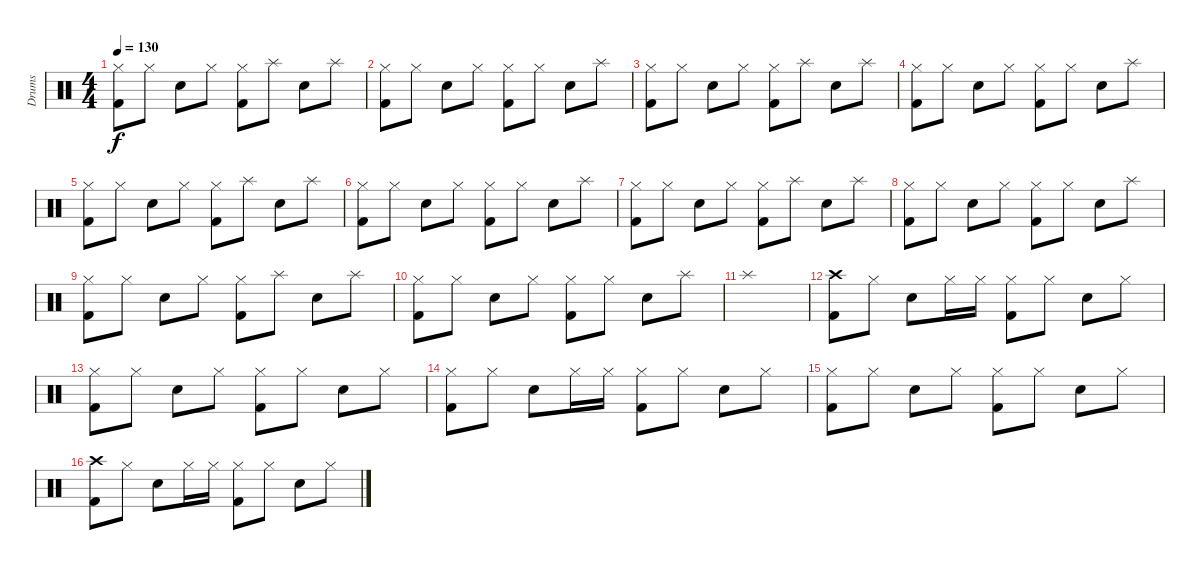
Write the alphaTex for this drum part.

\track ("Drums" "Drums") {instrument percussion}
\staff {score}
\articulation defaults
\ts (4 4)
\tempo 130
\clef neutral
\ks c
("Hi-Hat (closed)" "Kick (hit) 2").8{dy f} "Hi-Hat (closed)".8 "Snare (hit) 2".8 "Hi-Hat (closed)".8 ("Hi-Hat (closed)" "Kick (hit) 2").8 "Splash (hit)".8 "Snare (hit) 2".8 "Splash (hit)".8 |
("Hi-Hat (closed)" "Kick (hit) 2").8 "Hi-Hat (closed)".8 "Snare (hit) 2".8 "Hi-Hat (closed)".8 ("Hi-Hat (closed)" "Kick (hit) 2").8 "Hi-Hat (closed)".8 "Snare (hit) 2".8 "Splash (hit)".8 |
("Hi-Hat (closed)" "Kick (hit) 2").8 "Hi-Hat (closed)".8 "Snare (hit) 2".8 "Hi-Hat (closed)".8 ("Hi-Hat (closed)" "Kick (hit) 2").8 "Splash (hit)".8 "Snare (hit) 2".8 "Splash (hit)".8 |
("Hi-Hat (closed)" "Kick (hit) 2").8 "Hi-Hat (closed)".8 "Snare (hit) 2".8 "Hi-Hat (closed)".8 ("Hi-Hat (closed)" "Kick (hit) 2").8 "Hi-Hat (closed)".8 "Snare (hit) 2".8 "Splash (hit)".8 |
("Hi-Hat (closed)" "Kick (hit) 2").8 "Hi-Hat (closed)".8 "Snare (hit) 2".8 "Hi-Hat (closed)".8 ("Hi-Hat (closed)" "Kick (hit) 2").8 "Splash (hit)".8 "Snare (hit) 2".8 "Splash (hit)".8 |
("Hi-Hat (closed)" "Kick (hit) 2").8 "Hi-Hat (closed)".8 "Snare (hit) 2".8 "Hi-Hat (closed)".8 ("Hi-Hat (closed)" "Kick (hit) 2").8 "Hi-Hat (closed)".8 "Snare (hit) 2".8 "Splash (hit)".8 |
("Hi-Hat (closed)" "Kick (hit) 2").8 "Hi-Hat (closed)".8 "Snare (hit) 2".8 "Hi-Hat (closed)".8 ("Hi-Hat (closed)" "Kick (hit) 2").8 "Splash (hit)".8 "Snare (hit) 2".8 "Splash (hit)".8 |
("Hi-Hat (closed)" "Kick (hit) 2").8 "Hi-Hat (closed)".8 "Snare (hit) 2".8 "Hi-Hat (closed)".8 ("Hi-Hat (closed)" "Kick (hit) 2").8 "Hi-Hat (closed)".8 "Snare (hit) 2".8 "Splash (hit)".8 |
("Hi-Hat (closed)" "Kick (hit) 2").8 "Hi-Hat (closed)".8 "Snare (hit) 2".8 "Hi-Hat (closed)".8 ("Hi-Hat (closed)" "Kick (hit) 2").8 "Splash (hit)".8 "Snare (hit) 2".8 "Splash (hit)".8 |
("Hi-Hat (closed)" "Kick (hit) 2").8 "Hi-Hat (closed)".8 "Snare (hit) 2".8 "Hi-Hat (closed)".8 ("Hi-Hat (closed)" "Kick (hit) 2").8 "Hi-Hat (closed)".8 "Snare (hit) 2".8 "Splash (hit)".8 |
"Splash (hit)".1 |
("Crash high (hit)" "Kick (hit) 2").8 "Hi-Hat (closed)".8 "Snare (hit) 2".8 "Hi-Hat (closed)".16 "Hi-Hat (closed)".16 ("Hi-Hat (closed)" "Kick (hit) 2").8 "Hi-Hat (closed)".8 "Snare (hit) 2".8 "Hi-Hat (closed)".8 |
("Hi-Hat (closed)" "Kick (hit) 2").8 "Hi-Hat (closed)".8 "Snare (hit) 2".8 "Hi-Hat (closed)".8 ("Hi-Hat (closed)" "Kick (hit) 2").8 "Hi-Hat (closed)".8 "Snare (hit) 2".8 "Hi-Hat (closed)".8 |
("Hi-Hat (closed)" "Kick (hit) 2").8 "Hi-Hat (closed)".8 "Snare (hit) 2".8 "Hi-Hat (closed)".16 "Hi-Hat (closed)".16 ("Hi-Hat (closed)" "Kick (hit) 2").8 "Hi-Hat (closed)".8 "Snare (hit) 2".8 "Hi-Hat (closed)".8 |
("Hi-Hat (closed)" "Kick (hit) 2").8 "Hi-Hat (closed)".8 "Snare (hit) 2".8 "Hi-Hat (closed)".8 ("Hi-Hat (closed)" "Kick (hit) 2").8 "Hi-Hat (closed)".8 "Snare (hit) 2".8 "Hi-Hat (closed)".8 |
("Crash high (hit)" "Kick (hit) 2").8 "Hi-Hat (closed)".8 "Snare (hit) 2".8 "Hi-Hat (closed)".16 "Hi-Hat (closed)".16 ("Hi-Hat (closed)" "Kick (hit) 2").8 "Hi-Hat (closed)".8 "Snare (hit) 2".8 "Hi-Hat (closed)".8
